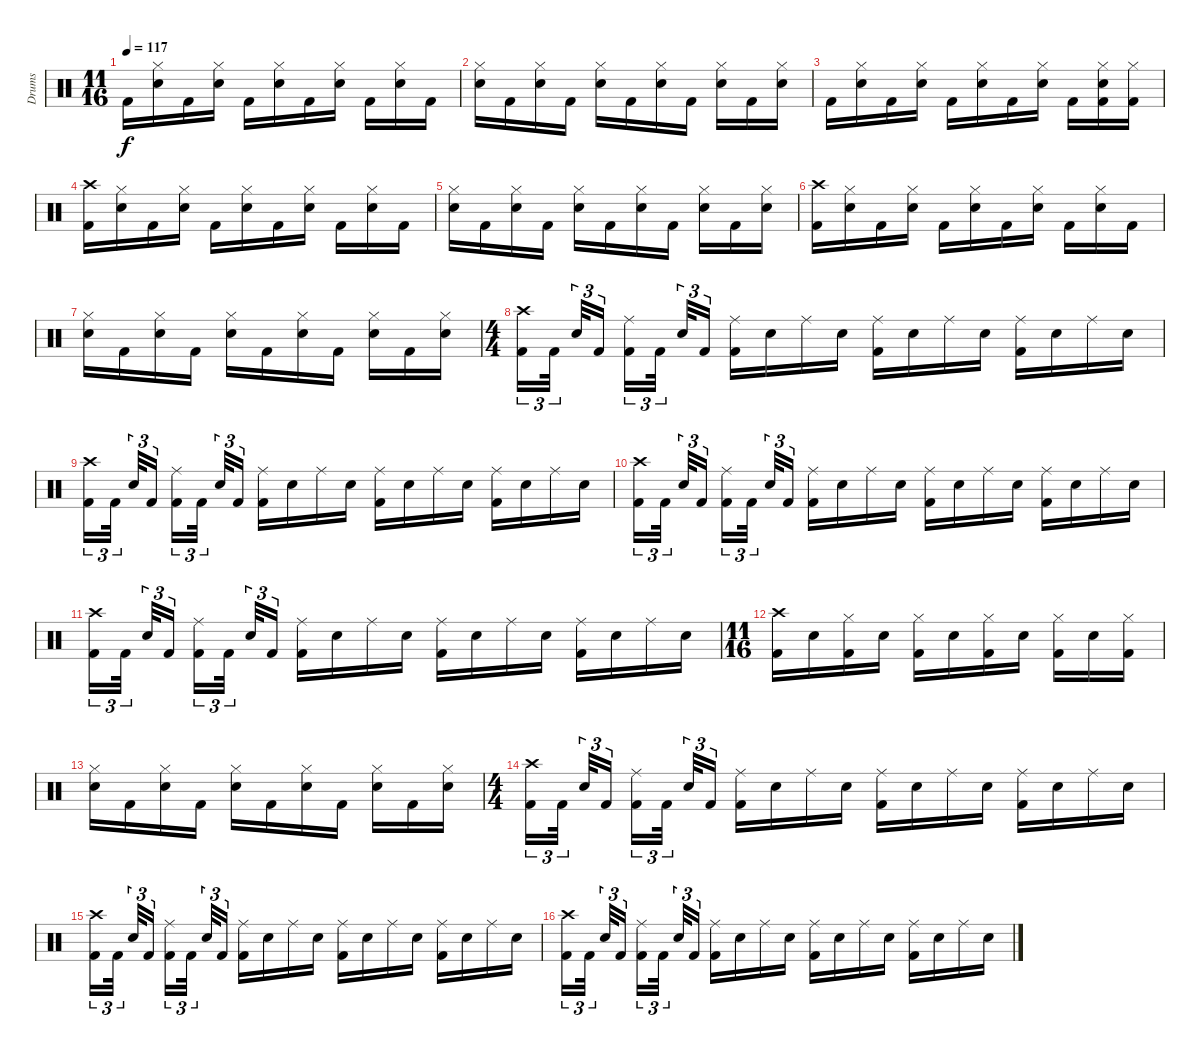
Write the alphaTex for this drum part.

\track ("Drums" "Drums") {instrument percussion}
\staff {score}
\articulation defaults
\ts (11 16)
\tempo 117
\clef neutral
\ks c "Kick (hit) 2".16{dy f}
("Hi-Hat (closed)" "Electric Snare (hit)").16 "Kick (hit) 2".16 ("Hi-Hat (closed)" "Electric Snare (hit)").16 "Kick (hit) 2".16 ("Hi-Hat (closed)" "Electric Snare (hit)").16 "Kick (hit) 2".16 ("Hi-Hat (closed)" "Electric Snare (hit)").16 "Kick (hit) 2".16 ("Hi-Hat (closed)" "Electric Snare (hit)").16 "Kick (hit) 2".16 |
("Hi-Hat (closed)" "Electric Snare (hit)").16 "Kick (hit) 2".16 ("Hi-Hat (closed)" "Electric Snare (hit)").16 "Kick (hit) 2".16 ("Hi-Hat (closed)" "Electric Snare (hit)").16 "Kick (hit) 2".16 ("Hi-Hat (closed)" "Electric Snare (hit)").16 "Kick (hit) 2".16 ("Hi-Hat (closed)" "Electric Snare (hit)").16 "Kick (hit) 2".16 ("Hi-Hat (closed)" "Electric Snare (hit)").16 |
"Kick (hit) 2".16 ("Hi-Hat (closed)" "Electric Snare (hit)").16 "Kick (hit) 2".16 ("Hi-Hat (closed)" "Electric Snare (hit)").16 "Kick (hit) 2".16 ("Hi-Hat (closed)" "Electric Snare (hit)").16 "Kick (hit) 2".16 ("Hi-Hat (closed)" "Electric Snare (hit)").16 "Kick (hit) 2".16 ("Hi-Hat (closed)" "Electric Snare (hit)" "Kick (hit) 2").16 ("Hi-Hat (closed)" "Kick (hit) 2").16 |
("Crash high (hit)" "Kick (hit) 2").16 ("Hi-Hat (closed)" "Electric Snare (hit)").16 "Kick (hit) 2".16 ("Hi-Hat (closed)" "Electric Snare (hit)").16 "Kick (hit) 2".16 ("Hi-Hat (closed)" "Electric Snare (hit)").16 "Kick (hit) 2".16 ("Hi-Hat (closed)" "Electric Snare (hit)").16 "Kick (hit) 2".16 ("Hi-Hat (closed)" "Electric Snare (hit)").16 "Kick (hit) 2".16 |
("Hi-Hat (closed)" "Electric Snare (hit)").16 "Kick (hit) 2".16 ("Hi-Hat (closed)" "Electric Snare (hit)").16 "Kick (hit) 2".16 ("Hi-Hat (closed)" "Electric Snare (hit)").16 "Kick (hit) 2".16 ("Hi-Hat (closed)" "Electric Snare (hit)").16 "Kick (hit) 2".16 ("Hi-Hat (closed)" "Electric Snare (hit)").16 "Kick (hit) 2".16 ("Hi-Hat (closed)" "Electric Snare (hit)").16 |
("Crash high (hit)" "Kick (hit) 2").16 ("Hi-Hat (closed)" "Electric Snare (hit)").16 "Kick (hit) 2".16 ("Hi-Hat (closed)" "Electric Snare (hit)").16 "Kick (hit) 2".16 ("Hi-Hat (closed)" "Electric Snare (hit)").16 "Kick (hit) 2".16 ("Hi-Hat (closed)" "Electric Snare (hit)").16 "Kick (hit) 2".16 ("Hi-Hat (closed)" "Electric Snare (hit)").16 "Kick (hit) 2".16 |
("Hi-Hat (closed)" "Electric Snare (hit)").16 "Kick (hit) 2".16 ("Hi-Hat (closed)" "Electric Snare (hit)").16 "Kick (hit) 2".16 ("Hi-Hat (closed)" "Electric Snare (hit)").16 "Kick (hit) 2".16 ("Hi-Hat (closed)" "Electric Snare (hit)").16 "Kick (hit) 2".16 ("Hi-Hat (closed)" "Electric Snare (hit)").16 "Kick (hit) 2".16 ("Hi-Hat (closed)" "Electric Snare (hit)").16 |
\ts (4 4)
("Crash high (hit)" "Kick (hit) 2").16{tu (3 2)} "Kick (hit) 2".32{tu (3 2)} "Electric Snare (hit)".32{tu (3 2)} "Kick (hit) 2".16{tu (3 2)} ("Ride (middle)" "Kick (hit) 2").16{tu (3 2)} "Kick (hit) 2".32{tu (3 2)} "Electric Snare (hit)".32{tu (3 2)} "Kick (hit) 2".16{tu (3 2)} ("Ride (middle)" "Kick (hit) 2").16 "Electric Snare (hit)".16 "Ride (middle)".16 "Electric Snare (hit)".16 ("Ride (middle)" "Kick (hit) 2").16 "Electric Snare (hit)".16 "Ride (middle)".16 "Electric Snare (hit)".16 ("Ride (middle)" "Kick (hit) 2").16 "Electric Snare (hit)".16 "Ride (middle)".16 "Electric Snare (hit)".16 |
("Crash high (hit)" "Kick (hit) 2").16{tu (3 2)} "Kick (hit) 2".32{tu (3 2)} "Electric Snare (hit)".32{tu (3 2)} "Kick (hit) 2".16{tu (3 2)} ("Ride (middle)" "Kick (hit) 2").16{tu (3 2)} "Kick (hit) 2".32{tu (3 2)} "Electric Snare (hit)".32{tu (3 2)} "Kick (hit) 2".16{tu (3 2)} ("Ride (middle)" "Kick (hit) 2").16 "Electric Snare (hit)".16 "Ride (middle)".16 "Electric Snare (hit)".16 ("Ride (middle)" "Kick (hit) 2").16 "Electric Snare (hit)".16 "Ride (middle)".16 "Electric Snare (hit)".16 ("Ride (middle)" "Kick (hit) 2").16 "Electric Snare (hit)".16 "Ride (middle)".16 "Electric Snare (hit)".16 |
("Crash high (hit)" "Kick (hit) 2").16{tu (3 2)} "Kick (hit) 2".32{tu (3 2)} "Electric Snare (hit)".32{tu (3 2)} "Kick (hit) 2".16{tu (3 2)} ("Ride (middle)" "Kick (hit) 2").16{tu (3 2)} "Kick (hit) 2".32{tu (3 2)} "Electric Snare (hit)".32{tu (3 2)} "Kick (hit) 2".16{tu (3 2)} ("Ride (middle)" "Kick (hit) 2").16 "Electric Snare (hit)".16 "Ride (middle)".16 "Electric Snare (hit)".16 ("Ride (middle)" "Kick (hit) 2").16 "Electric Snare (hit)".16 "Ride (middle)".16 "Electric Snare (hit)".16 ("Ride (middle)" "Kick (hit) 2").16 "Electric Snare (hit)".16 "Ride (middle)".16 "Electric Snare (hit)".16 |
("Crash high (hit)" "Kick (hit) 2").16{tu (3 2)} "Kick (hit) 2".32{tu (3 2)} "Electric Snare (hit)".32{tu (3 2)} "Kick (hit) 2".16{tu (3 2)} ("Ride (middle)" "Kick (hit) 2").16{tu (3 2)} "Kick (hit) 2".32{tu (3 2)} "Electric Snare (hit)".32{tu (3 2)} "Kick (hit) 2".16{tu (3 2)} ("Ride (middle)" "Kick (hit) 2").16 "Electric Snare (hit)".16 "Ride (middle)".16 "Electric Snare (hit)".16 ("Ride (middle)" "Kick (hit) 2").16 "Electric Snare (hit)".16 "Ride (middle)".16 "Electric Snare (hit)".16 ("Ride (middle)" "Kick (hit) 2").16 "Electric Snare (hit)".16 "Ride (middle)".16 "Electric Snare (hit)".16 |
\ts (11 16)
("Crash high (hit)" "Kick (hit) 2").16 "Electric Snare (hit)".16 ("Hi-Hat (closed)" "Kick (hit) 2").16 "Electric Snare (hit)".16 ("Hi-Hat (closed)" "Kick (hit) 2").16 "Electric Snare (hit)".16 ("Hi-Hat (closed)" "Kick (hit) 2").16 "Electric Snare (hit)".16 ("Hi-Hat (closed)" "Kick (hit) 2").16 "Electric Snare (hit)".16 ("Hi-Hat (closed)" "Kick (hit) 2").16 |
("Hi-Hat (closed)" "Electric Snare (hit)").16 "Kick (hit) 2".16 ("Hi-Hat (closed)" "Electric Snare (hit)").16 "Kick (hit) 2".16 ("Hi-Hat (closed)" "Electric Snare (hit)").16 "Kick (hit) 2".16 ("Hi-Hat (closed)" "Electric Snare (hit)").16 "Kick (hit) 2".16 ("Hi-Hat (closed)" "Electric Snare (hit)").16 "Kick (hit) 2".16 ("Hi-Hat (closed)" "Electric Snare (hit)").16 |
\ts (4 4)
("Crash high (hit)" "Kick (hit) 2").16{tu (3 2)} "Kick (hit) 2".32{tu (3 2)} "Electric Snare (hit)".32{tu (3 2)} "Kick (hit) 2".16{tu (3 2)} ("Ride (middle)" "Kick (hit) 2").16{tu (3 2)} "Kick (hit) 2".32{tu (3 2)} "Electric Snare (hit)".32{tu (3 2)} "Kick (hit) 2".16{tu (3 2)} ("Ride (middle)" "Kick (hit) 2").16 "Electric Snare (hit)".16 "Ride (middle)".16 "Electric Snare (hit)".16 ("Ride (middle)" "Kick (hit) 2").16 "Electric Snare (hit)".16 "Ride (middle)".16 "Electric Snare (hit)".16 ("Ride (middle)" "Kick (hit) 2").16 "Electric Snare (hit)".16 "Ride (middle)".16 "Electric Snare (hit)".16 |
("Crash high (hit)" "Kick (hit) 2").16{tu (3 2)} "Kick (hit) 2".32{tu (3 2)} "Electric Snare (hit)".32{tu (3 2)} "Kick (hit) 2".16{tu (3 2)} ("Ride (middle)" "Kick (hit) 2").16{tu (3 2)} "Kick (hit) 2".32{tu (3 2)} "Electric Snare (hit)".32{tu (3 2)} "Kick (hit) 2".16{tu (3 2)} ("Ride (middle)" "Kick (hit) 2").16 "Electric Snare (hit)".16 "Ride (middle)".16 "Electric Snare (hit)".16 ("Ride (middle)" "Kick (hit) 2").16 "Electric Snare (hit)".16 "Ride (middle)".16 "Electric Snare (hit)".16 ("Ride (middle)" "Kick (hit) 2").16 "Electric Snare (hit)".16 "Ride (middle)".16 "Electric Snare (hit)".16 |
("Crash high (hit)" "Kick (hit) 2").16{tu (3 2)} "Kick (hit) 2".32{tu (3 2)} "Electric Snare (hit)".32{tu (3 2)} "Kick (hit) 2".16{tu (3 2)} ("Ride (middle)" "Kick (hit) 2").16{tu (3 2)} "Kick (hit) 2".32{tu (3 2)} "Electric Snare (hit)".32{tu (3 2)} "Kick (hit) 2".16{tu (3 2)} ("Ride (middle)" "Kick (hit) 2").16 "Electric Snare (hit)".16 "Ride (middle)".16 "Electric Snare (hit)".16 ("Ride (middle)" "Kick (hit) 2").16 "Electric Snare (hit)".16 "Ride (middle)".16 "Electric Snare (hit)".16 ("Ride (middle)" "Kick (hit) 2").16 "Electric Snare (hit)".16 "Ride (middle)".16 "Electric Snare (hit)".16
